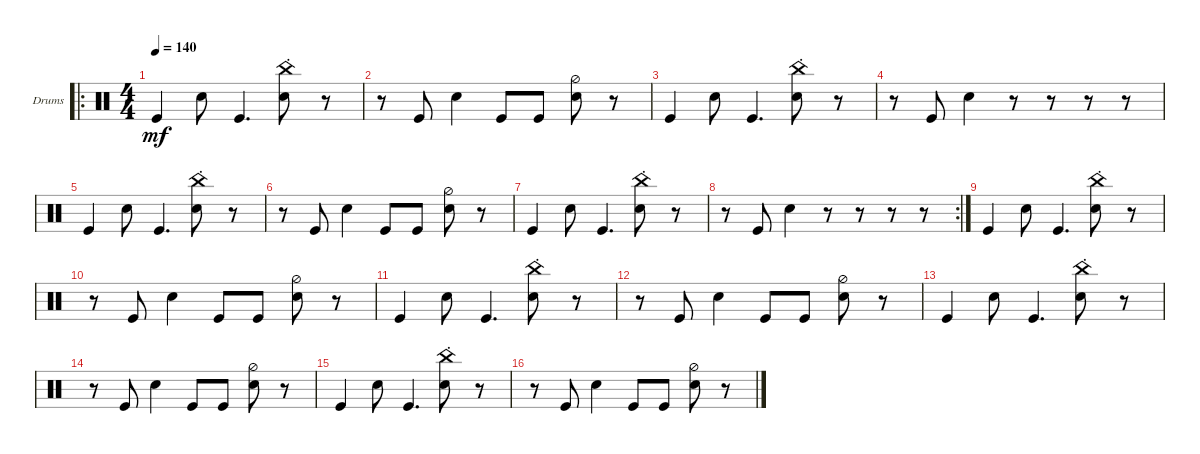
\defaultSystemsLayout 4
\bracketExtendMode groupsimilarinstruments
\firstSystemTrackNameOrientation horizontal
\otherSystemsTrackNameOrientation horizontal
\track ("Drumkit" "Drums") {instrument percussion}
\staff {score}
\articulation defaults
\ro
\ts (4 4)
\tempo 140
\clef neutral
\ks c "Kick (hit)".4{dy mf} "Snare (hit) 2".8 "Kick (hit)".4{d}
("Snare (hit) 2" "China (hit)"{st}).8 r.8 |
r.8 "Kick (hit)".8 "Snare (hit) 2".4 "Kick (hit)".8 "Kick (hit)".8 ("Snare (hit) 2" "Hi-Hat (half)").8 r.8 |
"Kick (hit)".4 "Snare (hit) 2".8 "Kick (hit)".4{d} ("Snare (hit) 2" "China (hit)"{st}).8 r.8 |
r.8 "Kick (hit)".8 "Snare (hit) 2".4 r.8 r.8 r.8 r.8 |
"Kick (hit)".4 "Snare (hit) 2".8 "Kick (hit)".4{d} ("Snare (hit) 2" "China (hit)"{st}).8 r.8 |
r.8 "Kick (hit)".8 "Snare (hit) 2".4 "Kick (hit)".8 "Kick (hit)".8 ("Snare (hit) 2" "Hi-Hat (half)").8 r.8 |
"Kick (hit)".4 "Snare (hit) 2".8 "Kick (hit)".4{d} ("Snare (hit) 2" "China (hit)"{st}).8 r.8 |
\rc 2
r.8 "Kick (hit)".8 "Snare (hit) 2".4 r.8 r.8 r.8 r.8 |
"Kick (hit)".4 "Snare (hit) 2".8 "Kick (hit)".4{d} ("Snare (hit) 2" "China (hit)"{st}).8 r.8 |
r.8 "Kick (hit)".8 "Snare (hit) 2".4 "Kick (hit)".8 "Kick (hit)".8 ("Snare (hit) 2" "Hi-Hat (half)").8 r.8 |
"Kick (hit)".4 "Snare (hit) 2".8 "Kick (hit)".4{d} ("Snare (hit) 2" "China (hit)"{st}).8 r.8 |
r.8 "Kick (hit)".8 "Snare (hit) 2".4 "Kick (hit)".8 "Kick (hit)".8 ("Snare (hit) 2" "Hi-Hat (half)").8 r.8 |
"Kick (hit)".4 "Snare (hit) 2".8 "Kick (hit)".4{d} ("Snare (hit) 2" "China (hit)"{st}).8 r.8 |
r.8 "Kick (hit)".8 "Snare (hit) 2".4 "Kick (hit)".8 "Kick (hit)".8 ("Snare (hit) 2" "Hi-Hat (half)").8 r.8 |
"Kick (hit)".4 "Snare (hit) 2".8 "Kick (hit)".4{d} ("Snare (hit) 2" "China (hit)"{st}).8 r.8 |
r.8 "Kick (hit)".8 "Snare (hit) 2".4 "Kick (hit)".8 "Kick (hit)".8 ("Snare (hit) 2" "Hi-Hat (half)").8 r.8
